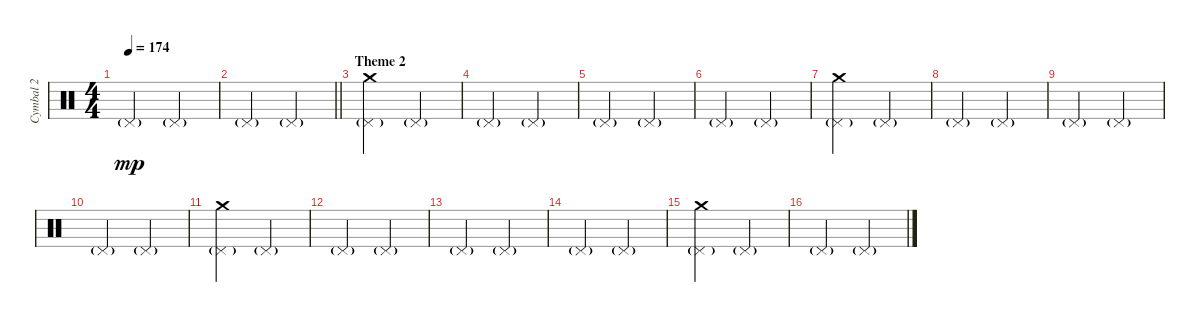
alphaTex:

\track ("Cymbal 2" "Cymbal 2") {instrument percussion}
\staff {score}
\articulation defaults
\ts (4 4)
\tempo 174
\clef neutral
\ks c "Pedal Hi-Hat (hit)"{g}.2{dy mp} "Pedal Hi-Hat (hit)"{g}.2
|
\barLineRight lightlight "Pedal Hi-Hat (hit)"{g}.2 "Pedal Hi-Hat (hit)"{g}.2
|
\section ("" "Theme 2")
("Pedal Hi-Hat (hit)"{g} "Crash medium (hit)").2 "Pedal Hi-Hat (hit)"{g}.2 |
"Pedal Hi-Hat (hit)"{g}.2 "Pedal Hi-Hat (hit)"{g}.2 |
"Pedal Hi-Hat (hit)"{g}.2 "Pedal Hi-Hat (hit)"{g}.2 |
"Pedal Hi-Hat (hit)"{g}.2 "Pedal Hi-Hat (hit)"{g}.2 |
("Pedal Hi-Hat (hit)"{g} "Crash medium (hit)").2 "Pedal Hi-Hat (hit)"{g}.2 |
"Pedal Hi-Hat (hit)"{g}.2 "Pedal Hi-Hat (hit)"{g}.2 |
"Pedal Hi-Hat (hit)"{g}.2 "Pedal Hi-Hat (hit)"{g}.2 |
"Pedal Hi-Hat (hit)"{g}.2 "Pedal Hi-Hat (hit)"{g}.2 |
("Pedal Hi-Hat (hit)"{g} "Crash medium (hit)").2 "Pedal Hi-Hat (hit)"{g}.2 |
"Pedal Hi-Hat (hit)"{g}.2 "Pedal Hi-Hat (hit)"{g}.2 |
"Pedal Hi-Hat (hit)"{g}.2 "Pedal Hi-Hat (hit)"{g}.2 |
"Pedal Hi-Hat (hit)"{g}.2 "Pedal Hi-Hat (hit)"{g}.2 |
("Pedal Hi-Hat (hit)"{g} "Crash medium (hit)").2 "Pedal Hi-Hat (hit)"{g}.2 |
"Pedal Hi-Hat (hit)"{g}.2 "Pedal Hi-Hat (hit)"{g}.2
